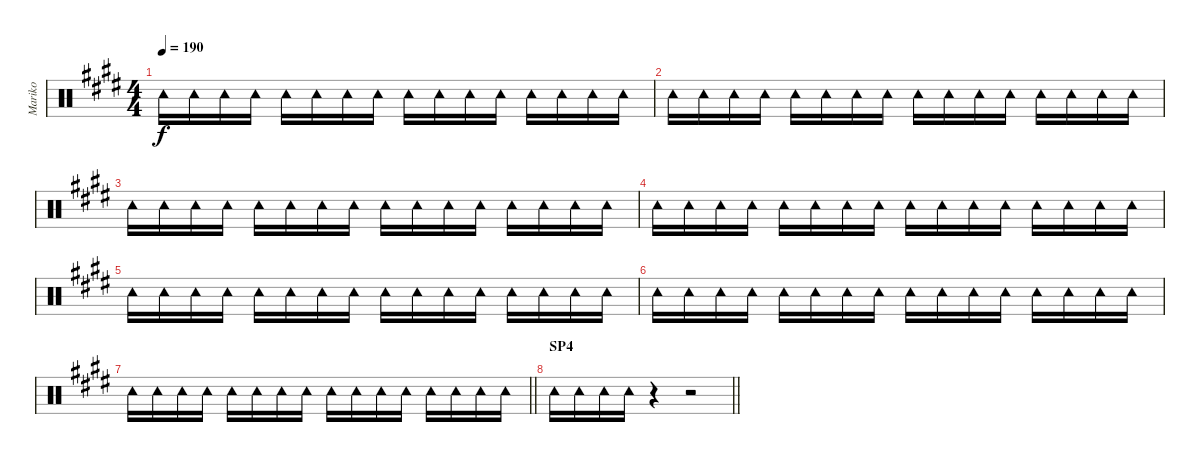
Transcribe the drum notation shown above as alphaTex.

\track ("Mariko" "Mariko") {mute instrument percussion}
\staff {score}
\articulation defaults
\ts (4 4)
\tempo 190
\clef neutral
\ks e "Tambourine (hit)".16{dy f} "Tambourine (hit)".16 "Tambourine (hit)".16 "Tambourine (hit)".16 "Tambourine (hit)".16 "Tambourine (hit)".16 "Tambourine (hit)".16 "Tambourine (hit)".16 "Tambourine (hit)".16 "Tambourine (hit)".16 "Tambourine (hit)".16 "Tambourine (hit)".16 "Tambourine (hit)".16 "Tambourine (hit)".16 "Tambourine (hit)".16 "Tambourine (hit)".16
|
"Tambourine (hit)".16 "Tambourine (hit)".16 "Tambourine (hit)".16 "Tambourine (hit)".16 "Tambourine (hit)".16 "Tambourine (hit)".16 "Tambourine (hit)".16 "Tambourine (hit)".16 "Tambourine (hit)".16 "Tambourine (hit)".16 "Tambourine (hit)".16 "Tambourine (hit)".16 "Tambourine (hit)".16 "Tambourine (hit)".16 "Tambourine (hit)".16 "Tambourine (hit)".16 |
"Tambourine (hit)".16 "Tambourine (hit)".16 "Tambourine (hit)".16 "Tambourine (hit)".16 "Tambourine (hit)".16 "Tambourine (hit)".16 "Tambourine (hit)".16 "Tambourine (hit)".16 "Tambourine (hit)".16 "Tambourine (hit)".16 "Tambourine (hit)".16 "Tambourine (hit)".16 "Tambourine (hit)".16 "Tambourine (hit)".16 "Tambourine (hit)".16 "Tambourine (hit)".16 |
"Tambourine (hit)".16 "Tambourine (hit)".16 "Tambourine (hit)".16 "Tambourine (hit)".16 "Tambourine (hit)".16 "Tambourine (hit)".16 "Tambourine (hit)".16 "Tambourine (hit)".16 "Tambourine (hit)".16 "Tambourine (hit)".16 "Tambourine (hit)".16 "Tambourine (hit)".16 "Tambourine (hit)".16 "Tambourine (hit)".16 "Tambourine (hit)".16 "Tambourine (hit)".16 |
"Tambourine (hit)".16 "Tambourine (hit)".16 "Tambourine (hit)".16 "Tambourine (hit)".16 "Tambourine (hit)".16 "Tambourine (hit)".16 "Tambourine (hit)".16 "Tambourine (hit)".16 "Tambourine (hit)".16 "Tambourine (hit)".16 "Tambourine (hit)".16 "Tambourine (hit)".16 "Tambourine (hit)".16 "Tambourine (hit)".16 "Tambourine (hit)".16 "Tambourine (hit)".16 |
"Tambourine (hit)".16 "Tambourine (hit)".16 "Tambourine (hit)".16 "Tambourine (hit)".16 "Tambourine (hit)".16 "Tambourine (hit)".16 "Tambourine (hit)".16 "Tambourine (hit)".16 "Tambourine (hit)".16 "Tambourine (hit)".16 "Tambourine (hit)".16 "Tambourine (hit)".16 "Tambourine (hit)".16 "Tambourine (hit)".16 "Tambourine (hit)".16 "Tambourine (hit)".16 |
\barLineRight lightlight "Tambourine (hit)".16 "Tambourine (hit)".16 "Tambourine (hit)".16 "Tambourine (hit)".16 "Tambourine (hit)".16 "Tambourine (hit)".16 "Tambourine (hit)".16 "Tambourine (hit)".16 "Tambourine (hit)".16 "Tambourine (hit)".16 "Tambourine (hit)".16 "Tambourine (hit)".16 "Tambourine (hit)".16 "Tambourine (hit)".16 "Tambourine (hit)".16 "Tambourine (hit)".16
|
\section ("" "SP4")
\barLineRight lightlight "Tambourine (hit)".16 "Tambourine (hit)".16 "Tambourine (hit)".16 "Tambourine (hit)".16
r.4 r.2
